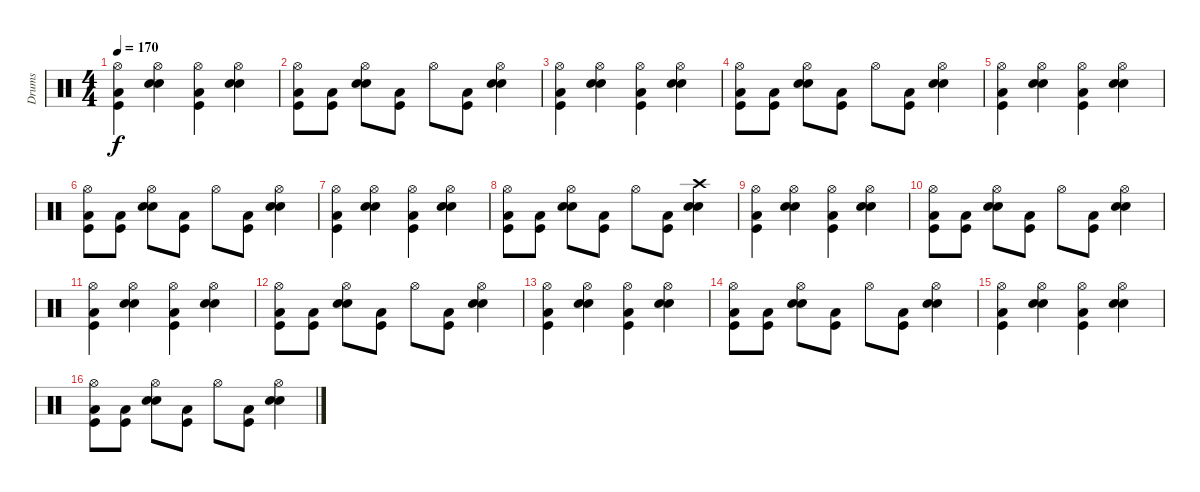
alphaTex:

\track ("Drums" "Drums") {instrument percussion}
\staff {score}
\articulation defaults
\ts (4 4)
\tempo 170
\clef neutral
\ks c
("Hi-Hat (open)" "Kick (hit)" "Low Tom (hit)").4{dy f} ("Hi-Hat (open)" "Snare (hit) 2" "Electric Snare (hit)").4 ("Hi-Hat (open)" "Kick (hit)" "Low Tom (hit)").4 ("Hi-Hat (open)" "Snare (hit) 2" "Electric Snare (hit)").4 |
("Hi-Hat (open)" "Kick (hit)" "Low Tom (hit)").8 ("Kick (hit)" "Low Tom (hit)").8 ("Hi-Hat (open)" "Snare (hit) 2" "Electric Snare (hit)").8 ("Kick (hit)" "Low Tom (hit)").8 "Hi-Hat (open)".8 ("Kick (hit)" "Low Tom (hit)").8 ("Hi-Hat (open)" "Snare (hit) 2" "Electric Snare (hit)").4 |
("Hi-Hat (open)" "Kick (hit)" "Low Tom (hit)").4 ("Hi-Hat (open)" "Snare (hit) 2" "Electric Snare (hit)").4 ("Hi-Hat (open)" "Kick (hit)" "Low Tom (hit)").4 ("Hi-Hat (open)" "Snare (hit) 2" "Electric Snare (hit)").4 |
("Hi-Hat (open)" "Kick (hit)" "Low Tom (hit)").8 ("Kick (hit)" "Low Tom (hit)").8 ("Hi-Hat (open)" "Snare (hit) 2" "Electric Snare (hit)").8 ("Kick (hit)" "Low Tom (hit)").8 "Hi-Hat (open)".8 ("Kick (hit)" "Low Tom (hit)").8 ("Hi-Hat (open)" "Snare (hit) 2" "Electric Snare (hit)").4 |
("Hi-Hat (open)" "Kick (hit)" "Low Tom (hit)").4 ("Hi-Hat (open)" "Snare (hit) 2" "Electric Snare (hit)").4 ("Hi-Hat (open)" "Kick (hit)" "Low Tom (hit)").4 ("Hi-Hat (open)" "Snare (hit) 2" "Electric Snare (hit)").4 |
("Hi-Hat (open)" "Kick (hit)" "Low Tom (hit)").8 ("Kick (hit)" "Low Tom (hit)").8 ("Hi-Hat (open)" "Snare (hit) 2" "Electric Snare (hit)").8 ("Kick (hit)" "Low Tom (hit)").8 "Hi-Hat (open)".8 ("Kick (hit)" "Low Tom (hit)").8 ("Hi-Hat (open)" "Snare (hit) 2" "Electric Snare (hit)").4 |
("Hi-Hat (open)" "Kick (hit)" "Low Tom (hit)").4 ("Hi-Hat (open)" "Snare (hit) 2" "Electric Snare (hit)").4 ("Hi-Hat (open)" "Kick (hit)" "Low Tom (hit)").4 ("Hi-Hat (open)" "Snare (hit) 2" "Electric Snare (hit)").4 |
("Hi-Hat (open)" "Kick (hit)" "Low Tom (hit)").8 ("Kick (hit)" "Low Tom (hit)").8 ("Hi-Hat (open)" "Snare (hit) 2" "Electric Snare (hit)").8 ("Kick (hit)" "Low Tom (hit)").8 "Hi-Hat (open)".8 ("Kick (hit)" "Low Tom (hit)").8 ("Crash high (hit)" "Snare (hit) 2" "Electric Snare (hit)").4 |
("Hi-Hat (open)" "Kick (hit)" "Low Tom (hit)").4 ("Hi-Hat (open)" "Snare (hit) 2" "Electric Snare (hit)").4 ("Hi-Hat (open)" "Kick (hit)" "Low Tom (hit)").4 ("Hi-Hat (open)" "Snare (hit) 2" "Electric Snare (hit)").4 |
("Hi-Hat (open)" "Kick (hit)" "Low Tom (hit)").8 ("Kick (hit)" "Low Tom (hit)").8 ("Hi-Hat (open)" "Snare (hit) 2" "Electric Snare (hit)").8 ("Kick (hit)" "Low Tom (hit)").8 "Hi-Hat (open)".8 ("Kick (hit)" "Low Tom (hit)").8 ("Hi-Hat (open)" "Snare (hit) 2" "Electric Snare (hit)").4 |
("Hi-Hat (open)" "Kick (hit)" "Low Tom (hit)").4 ("Hi-Hat (open)" "Snare (hit) 2" "Electric Snare (hit)").4 ("Hi-Hat (open)" "Kick (hit)" "Low Tom (hit)").4 ("Hi-Hat (open)" "Snare (hit) 2" "Electric Snare (hit)").4 |
("Hi-Hat (open)" "Kick (hit)" "Low Tom (hit)").8 ("Kick (hit)" "Low Tom (hit)").8 ("Hi-Hat (open)" "Snare (hit) 2" "Electric Snare (hit)").8 ("Kick (hit)" "Low Tom (hit)").8 "Hi-Hat (open)".8 ("Kick (hit)" "Low Tom (hit)").8 ("Hi-Hat (open)" "Snare (hit) 2" "Electric Snare (hit)").4 |
("Hi-Hat (open)" "Kick (hit)" "Low Tom (hit)").4 ("Hi-Hat (open)" "Snare (hit) 2" "Electric Snare (hit)").4 ("Hi-Hat (open)" "Kick (hit)" "Low Tom (hit)").4 ("Hi-Hat (open)" "Snare (hit) 2" "Electric Snare (hit)").4 |
("Hi-Hat (open)" "Kick (hit)" "Low Tom (hit)").8 ("Kick (hit)" "Low Tom (hit)").8 ("Hi-Hat (open)" "Snare (hit) 2" "Electric Snare (hit)").8 ("Kick (hit)" "Low Tom (hit)").8 "Hi-Hat (open)".8 ("Kick (hit)" "Low Tom (hit)").8 ("Hi-Hat (open)" "Snare (hit) 2" "Electric Snare (hit)").4 |
("Hi-Hat (open)" "Kick (hit)" "Low Tom (hit)").4 ("Hi-Hat (open)" "Snare (hit) 2" "Electric Snare (hit)").4 ("Hi-Hat (open)" "Kick (hit)" "Low Tom (hit)").4 ("Hi-Hat (open)" "Snare (hit) 2" "Electric Snare (hit)").4 |
("Hi-Hat (open)" "Kick (hit)" "Low Tom (hit)").8 ("Kick (hit)" "Low Tom (hit)").8 ("Hi-Hat (open)" "Snare (hit) 2" "Electric Snare (hit)").8 ("Kick (hit)" "Low Tom (hit)").8 "Hi-Hat (open)".8 ("Kick (hit)" "Low Tom (hit)").8 ("Hi-Hat (open)" "Snare (hit) 2" "Electric Snare (hit)").4
